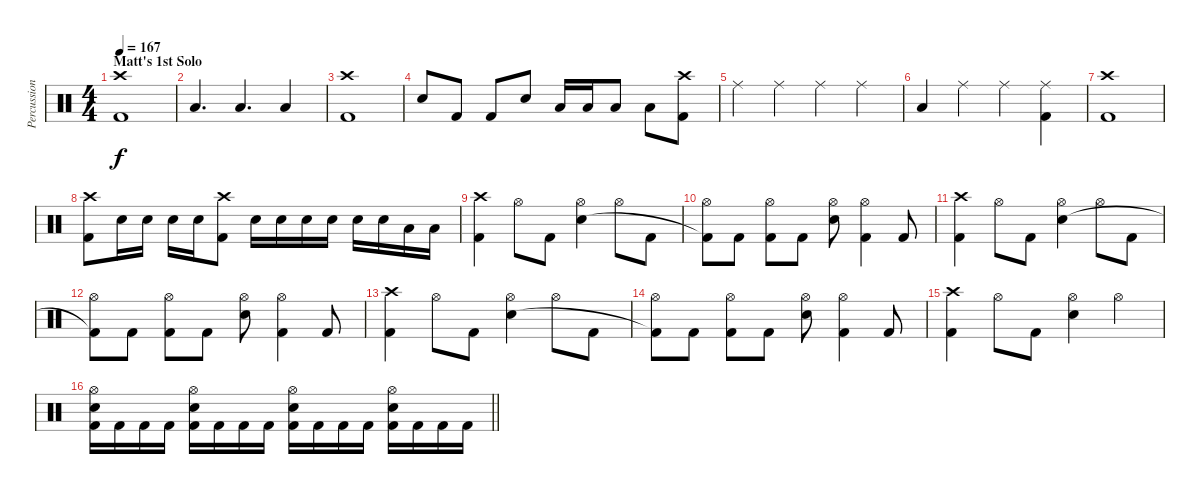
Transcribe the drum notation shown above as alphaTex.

\track ("Percussion" "Percussion") {instrument percussion}
\staff {score}
\articulation defaults
\ts (4 4)
\section ("" "Matt's 1st Solo")
\tempo 167
\clef neutral
\ks c
("Crash high (hit)" "Kick (hit) 2").1{dy f} |
"Low Tom (hit)".4{d} "Low Tom (hit)".4{d} "Low Tom (hit)".4 |
("Crash high (hit)" "Kick (hit) 2").1 |
"Snare (hit) 2".8 "Kick (hit) 2".8 "Kick (hit) 2".8 "Snare (hit) 2".8 "Low Tom (hit)".16 "Low Tom (hit)".16 "Low Tom (hit)".8 "Low Tom (hit)".8 ("Crash high (hit)" "Kick (hit) 2").8 |
"Ride (middle)".4 "Ride (middle)".4 "Ride (middle)".4 "Ride (middle)".4 |
"Low Tom (hit)".4 "Ride (middle)".4 "Ride (middle)".4 ("Ride (middle)" "Kick (hit) 2").4 |
("Crash high (hit)" "Kick (hit) 2").1 |
("Crash high (hit)" "Kick (hit) 2").8 "Snare (hit) 2".16 "Snare (hit) 2".16 "Snare (hit) 2".16 "Snare (hit) 2".16 ("Crash high (hit)" "Kick (hit) 2").8 "Snare (hit) 2".16 "Snare (hit) 2".16 "Snare (hit) 2".16 "Snare (hit) 2".16 "Snare (hit) 2".16 "Snare (hit) 2".16 "Low Tom (hit)".16 "Low Tom (hit)".16 |
("Crash high (hit)" "Kick (hit) 2").4 "Hi-Hat (open)".8 "Kick (hit) 2".8 ("Hi-Hat (open)" "Snare (hit) 2").4 "Hi-Hat (open)".8 "Kick (hit) 2".8 |
("Hi-Hat (open)" "Kick (hit) 2"{t}).8 "Kick (hit) 2".8 ("Hi-Hat (open)" "Kick (hit) 2").8 "Kick (hit) 2".8 ("Hi-Hat (open)" "Snare (hit) 2").8 ("Hi-Hat (open)" "Kick (hit) 2").4 "Kick (hit) 2".8 |
("Crash high (hit)" "Kick (hit) 2").4 "Hi-Hat (open)".8 "Kick (hit) 2".8 ("Hi-Hat (open)" "Snare (hit) 2").4 "Hi-Hat (open)".8 "Kick (hit) 2".8 |
("Hi-Hat (open)" "Kick (hit) 2"{t}).8 "Kick (hit) 2".8 ("Hi-Hat (open)" "Kick (hit) 2").8 "Kick (hit) 2".8 ("Hi-Hat (open)" "Snare (hit) 2").8 ("Hi-Hat (open)" "Kick (hit) 2").4 "Kick (hit) 2".8 |
("Crash high (hit)" "Kick (hit) 2").4 "Hi-Hat (open)".8 "Kick (hit) 2".8 ("Hi-Hat (open)" "Snare (hit) 2").4 "Hi-Hat (open)".8 "Kick (hit) 2".8 |
("Hi-Hat (open)" "Kick (hit) 2"{t}).8 "Kick (hit) 2".8 ("Hi-Hat (open)" "Kick (hit) 2").8 "Kick (hit) 2".8 ("Hi-Hat (open)" "Snare (hit) 2").8 ("Hi-Hat (open)" "Kick (hit) 2").4 "Kick (hit) 2".8 |
("Crash high (hit)" "Kick (hit) 2").4 "Hi-Hat (open)".8 "Kick (hit) 2".8 ("Hi-Hat (open)" "Snare (hit) 2").4 "Hi-Hat (open)".4 |
\barLineRight lightlight
("Hi-Hat (open)" "Snare (hit) 2" "Kick (hit) 2").16 "Kick (hit) 2".16 "Kick (hit) 2".16 "Kick (hit) 2".16 ("Hi-Hat (open)" "Snare (hit) 2" "Kick (hit) 2").16 "Kick (hit) 2".16 "Kick (hit) 2".16 "Kick (hit) 2".16 ("Hi-Hat (open)" "Snare (hit) 2" "Kick (hit) 2").16 "Kick (hit) 2".16 "Kick (hit) 2".16 "Kick (hit) 2".16 ("Hi-Hat (open)" "Snare (hit) 2" "Kick (hit) 2").16 "Kick (hit) 2".16 "Kick (hit) 2".16 "Kick (hit) 2".16
